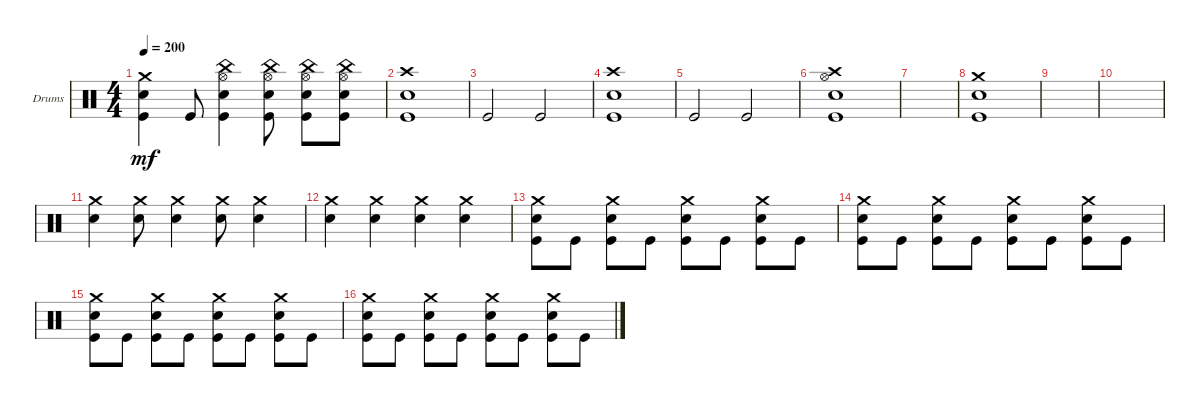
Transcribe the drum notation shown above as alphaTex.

\bracketExtendMode groupsimilarinstruments
\firstSystemTrackNameOrientation horizontal
\otherSystemsTrackNameOrientation horizontal
\track ("Drumkit" "Drums") {instrument percussion}
\staff {score}
\articulation defaults
\ts (4 4)
\tempo 200
\clef neutral
\ks c
("Kick (hit)" "Snare (hit) 2" "Crash medium (hit)").4{dy mf} "Kick (hit)".8 ("Kick (hit)" "Snare (hit) 2" "Hi-Hat (open)" "China (hit)").4 ("Kick (hit)" "Snare (hit) 2" "Hi-Hat (open)" "China (hit)").8 ("Kick (hit)" "Snare (hit) 2" "Hi-Hat (open)" "China (hit)").8 ("Kick (hit)" "Snare (hit) 2" "Hi-Hat (open)" "China (hit)").8 |
("Kick (hit)" "Snare (hit) 2" "Crash high (hit)").1 |
"Kick (hit)".2 "Kick (hit)".2 |
("Kick (hit)" "Snare (hit) 2" "Crash high (hit)").1 |
"Kick (hit)".2 "Kick (hit)".2 |
("Kick (hit)" "Snare (hit) 2" "Hi-Hat (open)" "Crash high (hit)").1 |
|
("Kick (hit)" "Snare (hit) 2" "Crash medium (hit)").1 |
|
|
("Snare (hit) 2" "Crash medium (hit)").4 ("Snare (hit) 2" "Crash medium (hit)").8 ("Snare (hit) 2" "Crash medium (hit)").4 ("Snare (hit) 2" "Crash medium (hit)").8 ("Snare (hit) 2" "Crash medium (hit)").4 |
("Snare (hit) 2" "Crash medium (hit)").4 ("Snare (hit) 2" "Crash medium (hit)").4 ("Snare (hit) 2" "Crash medium (hit)").4 ("Snare (hit) 2" "Crash medium (hit)").4 |
("Kick (hit)" "Snare (hit) 2" "Crash medium (hit)").8 "Kick (hit)".8 ("Kick (hit)" "Snare (hit) 2" "Crash medium (hit)").8 "Kick (hit)".8 ("Kick (hit)" "Snare (hit) 2" "Crash medium (hit)").8 "Kick (hit)".8 ("Kick (hit)" "Snare (hit) 2" "Crash medium (hit)").8 "Kick (hit)".8 |
("Kick (hit)" "Snare (hit) 2" "Crash medium (hit)").8 "Kick (hit)".8 ("Kick (hit)" "Snare (hit) 2" "Crash medium (hit)").8 "Kick (hit)".8 ("Kick (hit)" "Snare (hit) 2" "Crash medium (hit)").8 "Kick (hit)".8 ("Kick (hit)" "Snare (hit) 2" "Crash medium (hit)").8 "Kick (hit)".8 |
("Kick (hit)" "Snare (hit) 2" "Crash medium (hit)").8 "Kick (hit)".8 ("Kick (hit)" "Snare (hit) 2" "Crash medium (hit)").8 "Kick (hit)".8 ("Kick (hit)" "Snare (hit) 2" "Crash medium (hit)").8 "Kick (hit)".8 ("Kick (hit)" "Snare (hit) 2" "Crash medium (hit)").8 "Kick (hit)".8 |
("Kick (hit)" "Snare (hit) 2" "Crash medium (hit)").8 "Kick (hit)".8 ("Kick (hit)" "Snare (hit) 2" "Crash medium (hit)").8 "Kick (hit)".8 ("Kick (hit)" "Snare (hit) 2" "Crash medium (hit)").8 "Kick (hit)".8 ("Kick (hit)" "Snare (hit) 2" "Crash medium (hit)").8 "Kick (hit)".8
